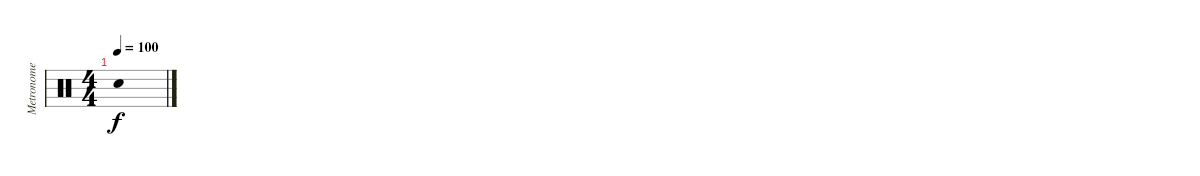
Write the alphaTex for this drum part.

\track ("Metronome" "Metronome") {instrument percussion}
\staff {score}
\articulation defaults
\ts (4 4)
\tempo 100
\clef neutral
\ks c "Metronome (bell)".1{dy f}
